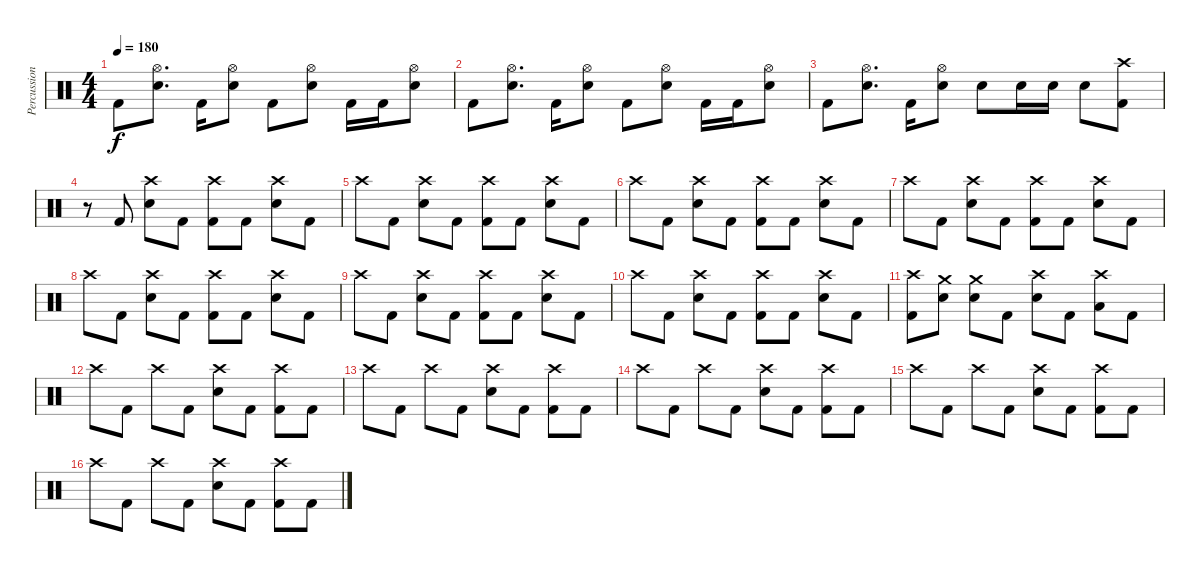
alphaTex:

\track ("Percussion" "Percussion") {instrument percussion}
\staff {score}
\articulation defaults
\ts (4 4)
\tempo 180
\clef neutral
\ks c "Kick (hit) 2".8{dy f}
("Hi-Hat (open)" "Electric Snare (hit)").8{d} "Kick (hit) 2".16 ("Hi-Hat (open)" "Electric Snare (hit)").8 "Kick (hit) 2".8 ("Hi-Hat (open)" "Electric Snare (hit)").8 "Kick (hit) 2".16 "Kick (hit) 2".16 ("Hi-Hat (open)" "Electric Snare (hit)").8 |
"Kick (hit) 2".8 ("Hi-Hat (open)" "Electric Snare (hit)").8{d} "Kick (hit) 2".16 ("Hi-Hat (open)" "Electric Snare (hit)").8 "Kick (hit) 2".8 ("Hi-Hat (open)" "Electric Snare (hit)").8 "Kick (hit) 2".16 "Kick (hit) 2".16 ("Hi-Hat (open)" "Electric Snare (hit)").8 |
"Kick (hit) 2".8 ("Hi-Hat (open)" "Electric Snare (hit)").8{d} "Kick (hit) 2".16 ("Hi-Hat (open)" "Electric Snare (hit)").8 "Electric Snare (hit)".8 "Electric Snare (hit)".16 "Electric Snare (hit)".16 "Electric Snare (hit)".8 ("Crash high (hit)" "Kick (hit) 2").8 |
r.8 "Kick (hit) 2".8 ("Crash high (hit)" "Electric Snare (hit)").8 "Kick (hit) 2".8 ("Crash high (hit)" "Kick (hit) 2").8 "Kick (hit) 2".8 ("Crash high (hit)" "Electric Snare (hit)").8 "Kick (hit) 2".8 |
"Crash high (hit)".8 "Kick (hit) 2".8 ("Crash high (hit)" "Electric Snare (hit)").8 "Kick (hit) 2".8 ("Crash high (hit)" "Kick (hit) 2").8 "Kick (hit) 2".8 ("Crash high (hit)" "Electric Snare (hit)").8 "Kick (hit) 2".8 |
"Crash high (hit)".8 "Kick (hit) 2".8 ("Crash high (hit)" "Electric Snare (hit)").8 "Kick (hit) 2".8 ("Crash high (hit)" "Kick (hit) 2").8 "Kick (hit) 2".8 ("Crash high (hit)" "Electric Snare (hit)").8 "Kick (hit) 2".8 |
"Crash high (hit)".8 "Kick (hit) 2".8 ("Crash high (hit)" "Electric Snare (hit)").8 "Kick (hit) 2".8 ("Crash high (hit)" "Kick (hit) 2").8 "Kick (hit) 2".8 ("Crash high (hit)" "Electric Snare (hit)").8 "Kick (hit) 2".8 |
"Crash high (hit)".8 "Kick (hit) 2".8 ("Crash high (hit)" "Electric Snare (hit)").8 "Kick (hit) 2".8 ("Crash high (hit)" "Kick (hit) 2").8 "Kick (hit) 2".8 ("Crash high (hit)" "Electric Snare (hit)").8 "Kick (hit) 2".8 |
"Crash high (hit)".8 "Kick (hit) 2".8 ("Crash high (hit)" "Electric Snare (hit)").8 "Kick (hit) 2".8 ("Crash high (hit)" "Kick (hit) 2").8 "Kick (hit) 2".8 ("Crash high (hit)" "Electric Snare (hit)").8 "Kick (hit) 2".8 |
"Crash high (hit)".8 "Kick (hit) 2".8 ("Crash high (hit)" "Electric Snare (hit)").8 "Kick (hit) 2".8 ("Crash high (hit)" "Kick (hit) 2").8 "Kick (hit) 2".8 ("Crash high (hit)" "Electric Snare (hit)").8 "Kick (hit) 2".8 |
("Crash high (hit)" "Kick (hit) 2").8 ("Crash medium (hit)" "Electric Snare (hit)").8 ("Crash medium (hit)" "Electric Snare (hit)").8 "Kick (hit) 2".8 ("Crash high (hit)" "Electric Snare (hit)").8 "Kick (hit) 2".8 ("Crash high (hit)" "Low Tom (hit)").8 "Kick (hit) 2".8 |
"Crash high (hit)".8 "Kick (hit) 2".8 "Crash high (hit)".8 "Kick (hit) 2".8 ("Crash high (hit)" "Electric Snare (hit)").8 "Kick (hit) 2".8 ("Crash high (hit)" "Kick (hit) 2").8 "Kick (hit) 2".8 |
"Crash high (hit)".8 "Kick (hit) 2".8 "Crash high (hit)".8 "Kick (hit) 2".8 ("Crash high (hit)" "Electric Snare (hit)").8 "Kick (hit) 2".8 ("Crash high (hit)" "Kick (hit) 2").8 "Kick (hit) 2".8 |
"Crash high (hit)".8 "Kick (hit) 2".8 "Crash high (hit)".8 "Kick (hit) 2".8 ("Crash high (hit)" "Electric Snare (hit)").8 "Kick (hit) 2".8 ("Crash high (hit)" "Kick (hit) 2").8 "Kick (hit) 2".8 |
"Crash high (hit)".8 "Kick (hit) 2".8 "Crash high (hit)".8 "Kick (hit) 2".8 ("Crash high (hit)" "Electric Snare (hit)").8 "Kick (hit) 2".8 ("Crash high (hit)" "Kick (hit) 2").8 "Kick (hit) 2".8 |
"Crash high (hit)".8 "Kick (hit) 2".8 "Crash high (hit)".8 "Kick (hit) 2".8 ("Crash high (hit)" "Electric Snare (hit)").8 "Kick (hit) 2".8 ("Crash high (hit)" "Kick (hit) 2").8 "Kick (hit) 2".8
